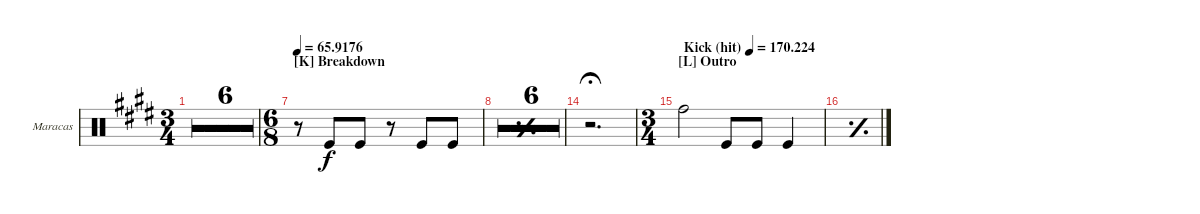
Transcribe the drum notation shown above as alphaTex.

\defaultSystemsLayout 4
\bracketExtendMode groupsimilarinstruments
\firstSystemTrackNameOrientation horizontal
\otherSystemsTrackNameOrientation horizontal
\track ("Maracas" "Maracas") {multiBarRest instrument percussion}
\staff {score}
\articulation defaults
\ts (3 4)
\tempo
165.176
\accidentals auto
\clef neutral
\ottava regular
\simile firstofdouble
\ks e
|
\simile secondofdouble
|
\simile firstofdouble
|
\simile secondofdouble
|
\simile firstofdouble
|
\simile secondofdouble
|
\ts (6 8)
\section ("K" "Breakdown")
\tempo
65.9176
\simile none
r.8 "Kick (hit)".8 "Kick (hit)".8 r.8 "Kick (hit)".8 "Kick (hit)".8 |
\simile simple
|
\simile firstofdouble
|
\simile secondofdouble
|
\simile firstofdouble
|
\simile secondofdouble
|
\simile simple
|
\simile none
r.2{d fermata (medium 0.5)} |
\ts (3 4)
\section ("L" "Outro")
\tempo
170.224 "Kick (hit)".4 "Kick (hit)".8 "Kick (hit)".8 "Kick (hit)".4 |
\simile simple
